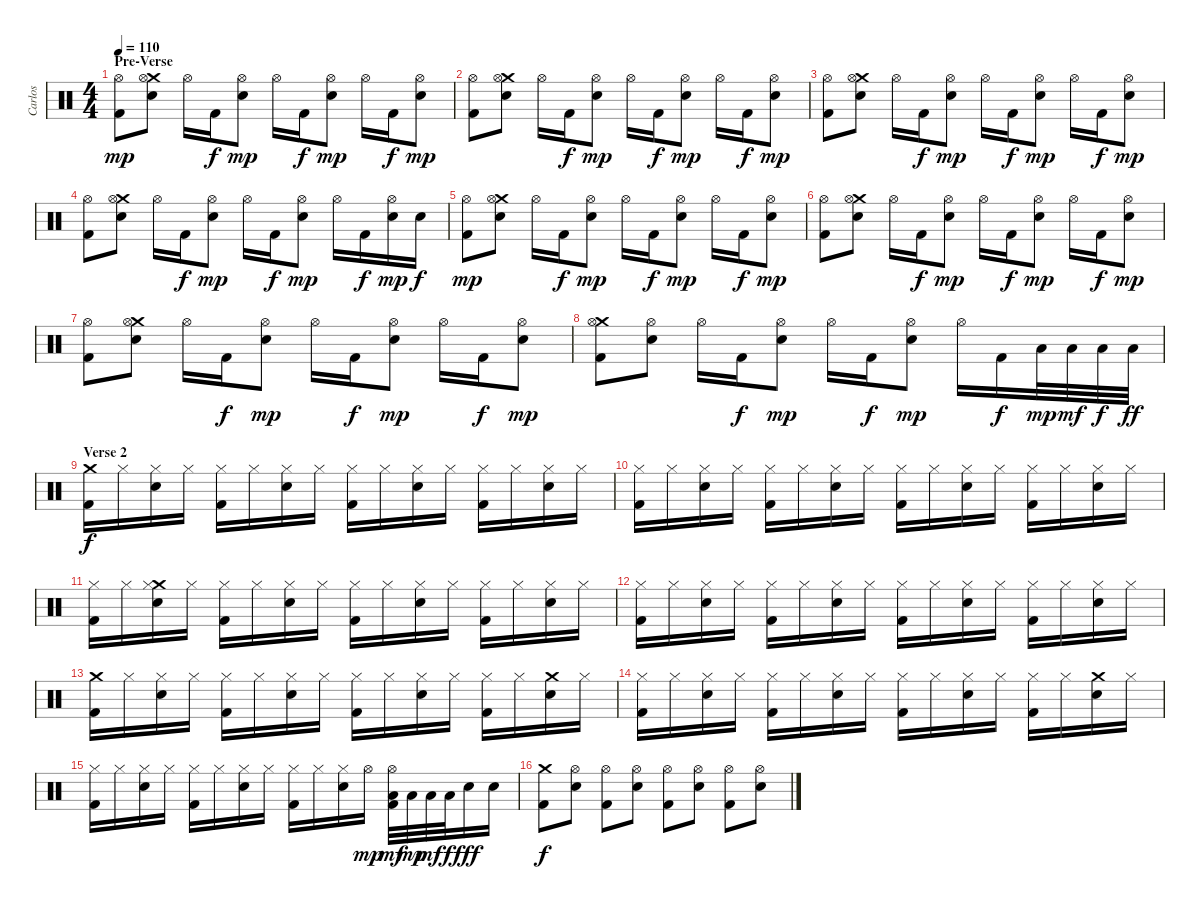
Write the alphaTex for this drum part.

\track ("Carlos" "Carlos") {instrument percussion}
\staff {score}
\articulation defaults
\ts (4 4)
\section ("" "Pre-Verse")
\tempo 110
\clef neutral
\ks c
("Hi-Hat (open)" "Kick (hit) 2").8{dy mp} ("Crash medium (hit)" "Hi-Hat (open)" "Electric Snare (hit)").8 "Hi-Hat (open)".16 "Kick (hit) 2".16{dy f} ("Hi-Hat (open)" "Electric Snare (hit)").8{dy mp} "Hi-Hat (open)".16 "Kick (hit) 2".16{dy f} ("Hi-Hat (open)" "Electric Snare (hit)").8{dy mp} "Hi-Hat (open)".16 "Kick (hit) 2".16{dy f} ("Hi-Hat (open)" "Electric Snare (hit)").8{dy mp} |
("Hi-Hat (open)" "Kick (hit) 2").8 ("Crash medium (hit)" "Hi-Hat (open)" "Electric Snare (hit)").8 "Hi-Hat (open)".16 "Kick (hit) 2".16{dy f} ("Hi-Hat (open)" "Electric Snare (hit)").8{dy mp} "Hi-Hat (open)".16 "Kick (hit) 2".16{dy f} ("Hi-Hat (open)" "Electric Snare (hit)").8{dy mp} "Hi-Hat (open)".16 "Kick (hit) 2".16{dy f} ("Hi-Hat (open)" "Electric Snare (hit)").8{dy mp} |
("Hi-Hat (open)" "Kick (hit) 2").8 ("Crash medium (hit)" "Hi-Hat (open)" "Electric Snare (hit)").8 "Hi-Hat (open)".16 "Kick (hit) 2".16{dy f} ("Hi-Hat (open)" "Electric Snare (hit)").8{dy mp} "Hi-Hat (open)".16 "Kick (hit) 2".16{dy f} ("Hi-Hat (open)" "Electric Snare (hit)").8{dy mp} "Hi-Hat (open)".16 "Kick (hit) 2".16{dy f} ("Hi-Hat (open)" "Electric Snare (hit)").8{dy mp} |
("Hi-Hat (open)" "Kick (hit) 2").8 ("Crash medium (hit)" "Hi-Hat (open)" "Electric Snare (hit)").8 "Hi-Hat (open)".16 "Kick (hit) 2".16{dy f} ("Hi-Hat (open)" "Electric Snare (hit)").8{dy mp} "Hi-Hat (open)".16 "Kick (hit) 2".16{dy f} ("Hi-Hat (open)" "Electric Snare (hit)").8{dy mp} "Hi-Hat (open)".16 "Kick (hit) 2".16{dy f} ("Hi-Hat (open)" "Electric Snare (hit)").16{dy mp} "Electric Snare (hit)".16{dy f} |
("Hi-Hat (open)" "Kick (hit) 2").8{dy mp} ("Crash medium (hit)" "Hi-Hat (open)" "Electric Snare (hit)").8 "Hi-Hat (open)".16 "Kick (hit) 2".16{dy f} ("Hi-Hat (open)" "Electric Snare (hit)").8{dy mp} "Hi-Hat (open)".16 "Kick (hit) 2".16{dy f} ("Hi-Hat (open)" "Electric Snare (hit)").8{dy mp} "Hi-Hat (open)".16 "Kick (hit) 2".16{dy f} ("Hi-Hat (open)" "Electric Snare (hit)").8{dy mp} |
("Hi-Hat (open)" "Kick (hit) 2").8 ("Crash medium (hit)" "Hi-Hat (open)" "Electric Snare (hit)").8 "Hi-Hat (open)".16 "Kick (hit) 2".16{dy f} ("Hi-Hat (open)" "Electric Snare (hit)").8{dy mp} "Hi-Hat (open)".16 "Kick (hit) 2".16{dy f} ("Hi-Hat (open)" "Electric Snare (hit)").8{dy mp} "Hi-Hat (open)".16 "Kick (hit) 2".16{dy f} ("Hi-Hat (open)" "Electric Snare (hit)").8{dy mp} |
("Hi-Hat (open)" "Kick (hit) 2").8 ("Crash medium (hit)" "Hi-Hat (open)" "Electric Snare (hit)").8 "Hi-Hat (open)".16 "Kick (hit) 2".16{dy f} ("Hi-Hat (open)" "Electric Snare (hit)").8{dy mp} "Hi-Hat (open)".16 "Kick (hit) 2".16{dy f} ("Hi-Hat (open)" "Electric Snare (hit)").8{dy mp} "Hi-Hat (open)".16 "Kick (hit) 2".16{dy f} ("Hi-Hat (open)" "Electric Snare (hit)").8{dy mp} |
("Crash medium (hit)" "Hi-Hat (open)" "Kick (hit) 2").8 ("Hi-Hat (open)" "Electric Snare (hit)").8 "Hi-Hat (open)".16 "Kick (hit) 2".16{dy f} ("Hi-Hat (open)" "Electric Snare (hit)").8{dy mp} "Hi-Hat (open)".16 "Kick (hit) 2".16{dy f} ("Hi-Hat (open)" "Electric Snare (hit)").8{dy mp} "Hi-Hat (open)".16 "Kick (hit) 2".16{dy f} "Low Tom (hit)".32{dy mp} "Low Tom (hit)".32{dy mf} "Low Tom (hit)".32{dy f} "Low Tom (hit)".32{dy ff} |
\section ("" "Verse 2")
("Crash medium (hit)" "Kick (hit) 2").16{dy f} "Hi-Hat (closed)".16 ("Hi-Hat (closed)" "Electric Snare (hit)").16 "Hi-Hat (closed)".16 ("Hi-Hat (closed)" "Kick (hit) 2").16 "Hi-Hat (closed)".16 ("Hi-Hat (closed)" "Electric Snare (hit)").16 "Hi-Hat (closed)".16 ("Hi-Hat (closed)" "Kick (hit) 2").16 "Hi-Hat (closed)".16 ("Hi-Hat (closed)" "Electric Snare (hit)").16 "Hi-Hat (closed)".16 ("Hi-Hat (closed)" "Kick (hit) 2").16 "Hi-Hat (closed)".16 ("Hi-Hat (closed)" "Electric Snare (hit)").16 "Hi-Hat (closed)".16 |
("Hi-Hat (closed)" "Kick (hit) 2").16 "Hi-Hat (closed)".16 ("Hi-Hat (closed)" "Electric Snare (hit)").16 "Hi-Hat (closed)".16 ("Hi-Hat (closed)" "Kick (hit) 2").16 "Hi-Hat (closed)".16 ("Hi-Hat (closed)" "Electric Snare (hit)").16 "Hi-Hat (closed)".16 ("Hi-Hat (closed)" "Kick (hit) 2").16 "Hi-Hat (closed)".16 ("Hi-Hat (closed)" "Electric Snare (hit)").16 "Hi-Hat (closed)".16 ("Hi-Hat (closed)" "Kick (hit) 2").16 "Hi-Hat (closed)".16 ("Hi-Hat (closed)" "Electric Snare (hit)").16 "Hi-Hat (closed)".16 |
("Hi-Hat (closed)" "Kick (hit) 2").16 "Hi-Hat (closed)".16 ("Crash medium (hit)" "Hi-Hat (closed)" "Electric Snare (hit)").16 "Hi-Hat (closed)".16 ("Hi-Hat (closed)" "Kick (hit) 2").16 "Hi-Hat (closed)".16 ("Hi-Hat (closed)" "Electric Snare (hit)").16 "Hi-Hat (closed)".16 ("Hi-Hat (closed)" "Kick (hit) 2").16 "Hi-Hat (closed)".16 ("Hi-Hat (closed)" "Electric Snare (hit)").16 "Hi-Hat (closed)".16 ("Hi-Hat (closed)" "Kick (hit) 2").16 "Hi-Hat (closed)".16 ("Hi-Hat (closed)" "Electric Snare (hit)").16 "Hi-Hat (closed)".16 |
("Hi-Hat (closed)" "Kick (hit) 2").16 "Hi-Hat (closed)".16 ("Hi-Hat (closed)" "Electric Snare (hit)").16 "Hi-Hat (closed)".16 ("Hi-Hat (closed)" "Kick (hit) 2").16 "Hi-Hat (closed)".16 ("Hi-Hat (closed)" "Electric Snare (hit)").16 "Hi-Hat (closed)".16 ("Hi-Hat (closed)" "Kick (hit) 2").16 "Hi-Hat (closed)".16 ("Hi-Hat (closed)" "Electric Snare (hit)").16 "Hi-Hat (closed)".16 ("Hi-Hat (closed)" "Kick (hit) 2").16 "Hi-Hat (closed)".16 ("Hi-Hat (closed)" "Electric Snare (hit)").16 "Hi-Hat (closed)".16 |
("Crash medium (hit)" "Kick (hit) 2").16 "Hi-Hat (closed)".16 ("Hi-Hat (closed)" "Electric Snare (hit)").16 "Hi-Hat (closed)".16 ("Hi-Hat (closed)" "Kick (hit) 2").16 "Hi-Hat (closed)".16 ("Hi-Hat (closed)" "Electric Snare (hit)").16 "Hi-Hat (closed)".16 ("Hi-Hat (closed)" "Kick (hit) 2").16 "Hi-Hat (closed)".16 ("Hi-Hat (closed)" "Electric Snare (hit)").16 "Hi-Hat (closed)".16 ("Hi-Hat (closed)" "Kick (hit) 2").16 "Hi-Hat (closed)".16 ("Crash medium (hit)" "Electric Snare (hit)").16 "Hi-Hat (closed)".16 |
("Hi-Hat (closed)" "Kick (hit) 2").16 "Hi-Hat (closed)".16 ("Hi-Hat (closed)" "Electric Snare (hit)").16 "Hi-Hat (closed)".16 ("Hi-Hat (closed)" "Kick (hit) 2").16 "Hi-Hat (closed)".16 ("Hi-Hat (closed)" "Electric Snare (hit)").16 "Hi-Hat (closed)".16 ("Hi-Hat (closed)" "Kick (hit) 2").16 "Hi-Hat (closed)".16 ("Hi-Hat (closed)" "Electric Snare (hit)").16 "Hi-Hat (closed)".16 ("Hi-Hat (closed)" "Kick (hit) 2").16 "Hi-Hat (closed)".16 ("Crash medium (hit)" "Electric Snare (hit)").16 "Hi-Hat (closed)".16 |
("Hi-Hat (closed)" "Kick (hit) 2").16 "Hi-Hat (closed)".16 ("Hi-Hat (closed)" "Electric Snare (hit)").16 "Hi-Hat (closed)".16 ("Hi-Hat (closed)" "Kick (hit) 2").16 "Hi-Hat (closed)".16 ("Hi-Hat (closed)" "Electric Snare (hit)").16 "Hi-Hat (closed)".16 ("Hi-Hat (closed)" "Kick (hit) 2").16 "Hi-Hat (closed)".16 ("Hi-Hat (closed)" "Electric Snare (hit)").16 "Hi-Hat (open)".16{dy mp} ("Hi-Hat (open)" "Low Tom (hit)" "Kick (hit) 2").32{dy mf} "Low Tom (hit)".32{dy mp} "Low Tom (hit)".32{dy mf} "Low Tom (hit)".32{dy f} "Electric Snare (hit)".16{dy fff} "Electric Snare (hit)".16 |
("Crash medium (hit)" "Kick (hit) 2").8{dy f} ("Hi-Hat (open)" "Electric Snare (hit)").8 ("Hi-Hat (open)" "Kick (hit) 2").8 ("Hi-Hat (open)" "Electric Snare (hit)").8 ("Hi-Hat (open)" "Kick (hit) 2").8 ("Hi-Hat (open)" "Electric Snare (hit)").8 ("Hi-Hat (open)" "Kick (hit) 2").8 ("Hi-Hat (open)" "Electric Snare (hit)").8
